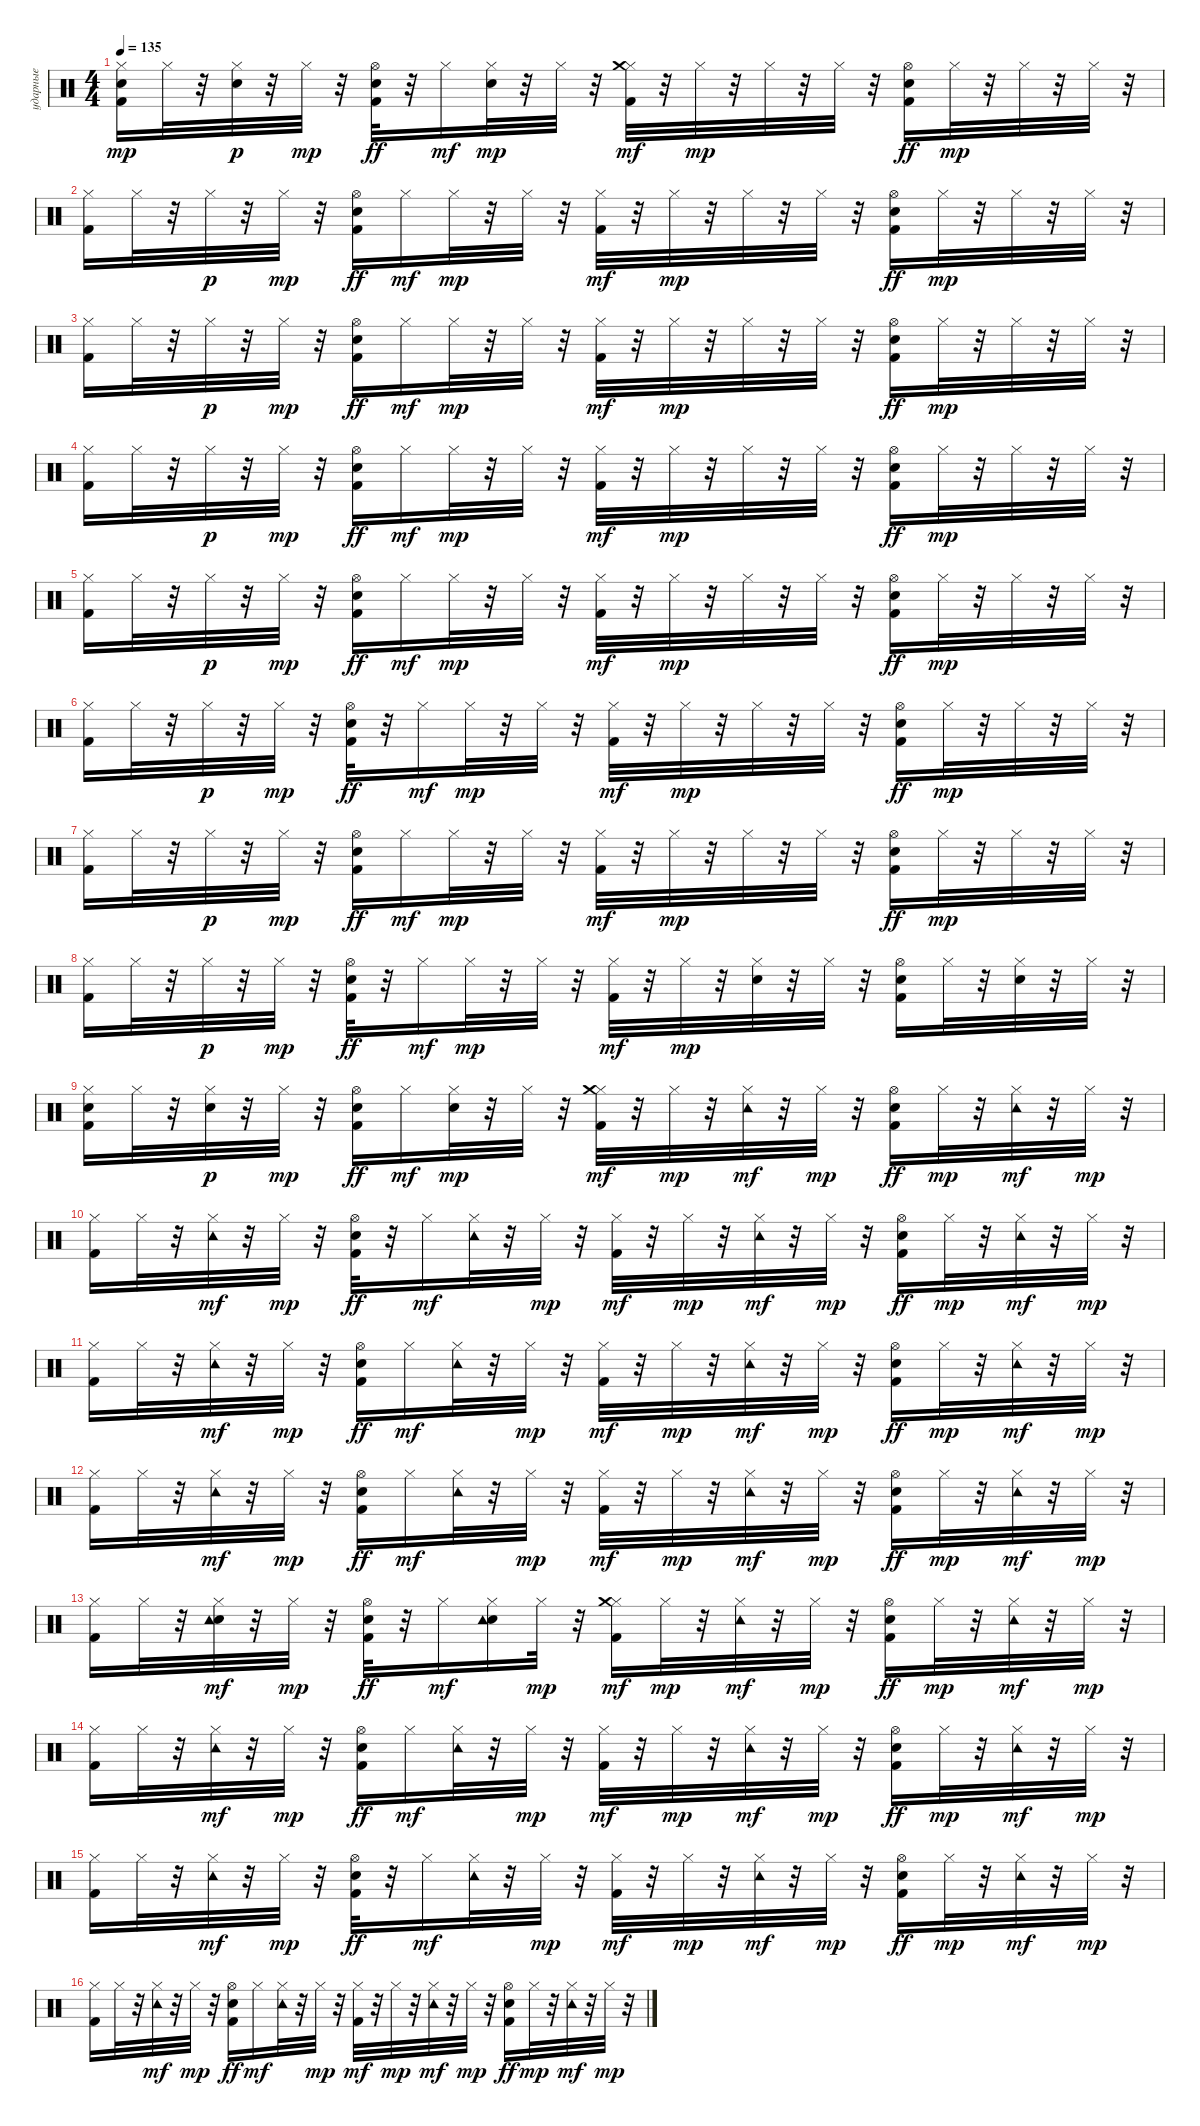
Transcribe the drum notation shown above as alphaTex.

\track ("ударные" "ударные") {instrument percussion}
\staff {score}
\articulation defaults
\ts (4 4)
\tempo 135
\clef neutral
\ks c
("Kick (hit) 2" "Snare (hit) 2" "Hi-Hat (closed)").16{dy mp} "Hi-Hat (closed)".32 r.32 ("Snare (hit) 2" "Hi-Hat (closed)").32{dy p} r.32 "Hi-Hat (closed)".32{dy mp} r.32 ("Kick (hit) 2" "Snare (hit) 2" "Hi-Hat (open)").32{dy ff} r.32 "Hi-Hat (closed)".16{dy mf} ("Snare (hit) 2" "Hi-Hat (closed)").32{dy mp} r.32 "Hi-Hat (closed)".32 r.32 ("Kick (hit) 2" "Hi-Hat (closed)" "Crash medium (hit)").32{dy mf} r.32 "Hi-Hat (closed)".32{dy mp} r.32 "Hi-Hat (closed)".32 r.32 "Hi-Hat (closed)".32 r.32 ("Kick (hit) 2" "Snare (hit) 2" "Hi-Hat (open)").16{dy ff} "Hi-Hat (closed)".32{dy mp} r.32 "Hi-Hat (closed)".32 r.32 "Hi-Hat (closed)".32 r.32 |
("Kick (hit) 2" "Hi-Hat (closed)").16 "Hi-Hat (closed)".32 r.32 "Hi-Hat (closed)".32{dy p} r.32 "Hi-Hat (closed)".32{dy mp} r.32 ("Kick (hit) 2" "Snare (hit) 2" "Hi-Hat (open)").16{dy ff} "Hi-Hat (closed)".16{dy mf} "Hi-Hat (closed)".32{dy mp} r.32 "Hi-Hat (closed)".32 r.32 ("Kick (hit) 2" "Hi-Hat (closed)").32{dy mf} r.32 "Hi-Hat (closed)".32{dy mp} r.32 "Hi-Hat (closed)".32 r.32 "Hi-Hat (closed)".32 r.32 ("Kick (hit) 2" "Snare (hit) 2" "Hi-Hat (open)").16{dy ff} "Hi-Hat (closed)".32{dy mp} r.32 "Hi-Hat (closed)".32 r.32 "Hi-Hat (closed)".32 r.32 |
("Kick (hit) 2" "Hi-Hat (closed)").16 "Hi-Hat (closed)".32 r.32 "Hi-Hat (closed)".32{dy p} r.32 "Hi-Hat (closed)".32{dy mp} r.32 ("Kick (hit) 2" "Snare (hit) 2" "Hi-Hat (open)").16{dy ff} "Hi-Hat (closed)".16{dy mf} "Hi-Hat (closed)".32{dy mp} r.32 "Hi-Hat (closed)".32 r.32 ("Kick (hit) 2" "Hi-Hat (closed)").32{dy mf} r.32 "Hi-Hat (closed)".32{dy mp} r.32 "Hi-Hat (closed)".32 r.32 "Hi-Hat (closed)".32 r.32 ("Kick (hit) 2" "Snare (hit) 2" "Hi-Hat (open)").16{dy ff} "Hi-Hat (closed)".32{dy mp} r.32 "Hi-Hat (closed)".32 r.32 "Hi-Hat (closed)".32 r.32 |
("Kick (hit) 2" "Hi-Hat (closed)").16 "Hi-Hat (closed)".32 r.32 "Hi-Hat (closed)".32{dy p} r.32 "Hi-Hat (closed)".32{dy mp} r.32 ("Kick (hit) 2" "Snare (hit) 2" "Hi-Hat (open)").16{dy ff} "Hi-Hat (closed)".16{dy mf} "Hi-Hat (closed)".32{dy mp} r.32 "Hi-Hat (closed)".32 r.32 ("Kick (hit) 2" "Hi-Hat (closed)").32{dy mf} r.32 "Hi-Hat (closed)".32{dy mp} r.32 "Hi-Hat (closed)".32 r.32 "Hi-Hat (closed)".32 r.32 ("Kick (hit) 2" "Snare (hit) 2" "Hi-Hat (open)").16{dy ff} "Hi-Hat (closed)".32{dy mp} r.32 "Hi-Hat (closed)".32 r.32 "Hi-Hat (closed)".32 r.32 |
("Kick (hit) 2" "Hi-Hat (closed)").16 "Hi-Hat (closed)".32 r.32 "Hi-Hat (closed)".32{dy p} r.32 "Hi-Hat (closed)".32{dy mp} r.32 ("Kick (hit) 2" "Snare (hit) 2" "Hi-Hat (open)").16{dy ff} "Hi-Hat (closed)".16{dy mf} "Hi-Hat (closed)".32{dy mp} r.32 "Hi-Hat (closed)".32 r.32 ("Kick (hit) 2" "Hi-Hat (closed)").32{dy mf} r.32 "Hi-Hat (closed)".32{dy mp} r.32 "Hi-Hat (closed)".32 r.32 "Hi-Hat (closed)".32 r.32 ("Kick (hit) 2" "Snare (hit) 2" "Hi-Hat (open)").16{dy ff} "Hi-Hat (closed)".32{dy mp} r.32 "Hi-Hat (closed)".32 r.32 "Hi-Hat (closed)".32 r.32 |
("Kick (hit) 2" "Hi-Hat (closed)").16 "Hi-Hat (closed)".32 r.32 "Hi-Hat (closed)".32{dy p} r.32 "Hi-Hat (closed)".32{dy mp} r.32 ("Kick (hit) 2" "Snare (hit) 2" "Hi-Hat (open)").32{dy ff} r.32 "Hi-Hat (closed)".16{dy mf} "Hi-Hat (closed)".32{dy mp} r.32 "Hi-Hat (closed)".32 r.32 ("Kick (hit) 2" "Hi-Hat (closed)").32{dy mf} r.32 "Hi-Hat (closed)".32{dy mp} r.32 "Hi-Hat (closed)".32 r.32 "Hi-Hat (closed)".32 r.32 ("Kick (hit) 2" "Snare (hit) 2" "Hi-Hat (open)").16{dy ff} "Hi-Hat (closed)".32{dy mp} r.32 "Hi-Hat (closed)".32 r.32 "Hi-Hat (closed)".32 r.32 |
("Kick (hit) 2" "Hi-Hat (closed)").16 "Hi-Hat (closed)".32 r.32 "Hi-Hat (closed)".32{dy p} r.32 "Hi-Hat (closed)".32{dy mp} r.32 ("Kick (hit) 2" "Snare (hit) 2" "Hi-Hat (open)").16{dy ff} "Hi-Hat (closed)".16{dy mf} "Hi-Hat (closed)".32{dy mp} r.32 "Hi-Hat (closed)".32 r.32 ("Kick (hit) 2" "Hi-Hat (closed)").32{dy mf} r.32 "Hi-Hat (closed)".32{dy mp} r.32 "Hi-Hat (closed)".32 r.32 "Hi-Hat (closed)".32 r.32 ("Kick (hit) 2" "Snare (hit) 2" "Hi-Hat (open)").16{dy ff} "Hi-Hat (closed)".32{dy mp} r.32 "Hi-Hat (closed)".32 r.32 "Hi-Hat (closed)".32 r.32 |
("Kick (hit) 2" "Hi-Hat (closed)").16 "Hi-Hat (closed)".32 r.32 "Hi-Hat (closed)".32{dy p} r.32 "Hi-Hat (closed)".32{dy mp} r.32 ("Kick (hit) 2" "Hi-Hat (open)" "Snare (hit) 2").32{dy ff} r.32 "Hi-Hat (closed)".16{dy mf} "Hi-Hat (closed)".32{dy mp} r.32 "Hi-Hat (closed)".32 r.32 ("Kick (hit) 2" "Hi-Hat (closed)").32{dy mf} r.32 "Hi-Hat (closed)".32{dy mp} r.32 ("Snare (hit) 2" "Hi-Hat (closed)").32 r.32 "Hi-Hat (closed)".32 r.32 ("Kick (hit) 2" "Snare (hit) 2" "Hi-Hat (open)").16 "Hi-Hat (closed)".32 r.32 ("Snare (hit) 2" "Hi-Hat (closed)").32 r.32 "Hi-Hat (closed)".32 r.32 |
("Kick (hit) 2" "Snare (hit) 2" "Hi-Hat (closed)").16 "Hi-Hat (closed)".32 r.32 ("Snare (hit) 2" "Hi-Hat (closed)").32{dy p} r.32 "Hi-Hat (closed)".32{dy mp} r.32 ("Kick (hit) 2" "Snare (hit) 2" "Hi-Hat (open)").16{dy ff} "Hi-Hat (closed)".16{dy mf} ("Snare (hit) 2" "Hi-Hat (closed)").32{dy mp} r.32 "Hi-Hat (closed)".32 r.32 ("Kick (hit) 2" "Hi-Hat (closed)" "Crash medium (hit)").32{dy mf} r.32 "Hi-Hat (closed)".32{dy mp} r.32 ("Hi-Hat (closed)" "Tambourine (hit)").32{dy mf} r.32 "Hi-Hat (closed)".32{dy mp} r.32 ("Kick (hit) 2" "Snare (hit) 2" "Hi-Hat (open)").16{dy ff} "Hi-Hat (closed)".32{dy mp} r.32 ("Hi-Hat (closed)" "Tambourine (hit)").32{dy mf} r.32 "Hi-Hat (closed)".32{dy mp} r.32 |
("Kick (hit) 2" "Hi-Hat (closed)").16 "Hi-Hat (closed)".32 r.32 ("Hi-Hat (closed)" "Tambourine (hit)").32{dy mf} r.32 "Hi-Hat (closed)".32{dy mp} r.32 ("Kick (hit) 2" "Snare (hit) 2" "Hi-Hat (open)").32{dy ff} r.32 "Hi-Hat (closed)".16{dy mf} ("Hi-Hat (closed)" "Tambourine (hit)").32 r.32 "Hi-Hat (closed)".32{dy mp} r.32 ("Kick (hit) 2" "Hi-Hat (closed)").32{dy mf} r.32 "Hi-Hat (closed)".32{dy mp} r.32 ("Hi-Hat (closed)" "Tambourine (hit)").32{dy mf} r.32 "Hi-Hat (closed)".32{dy mp} r.32 ("Kick (hit) 2" "Snare (hit) 2" "Hi-Hat (open)").16{dy ff} "Hi-Hat (closed)".32{dy mp} r.32 ("Hi-Hat (closed)" "Tambourine (hit)").32{dy mf} r.32 "Hi-Hat (closed)".32{dy mp} r.32 |
("Kick (hit) 2" "Hi-Hat (closed)").16 "Hi-Hat (closed)".32 r.32 ("Hi-Hat (closed)" "Tambourine (hit)").32{dy mf} r.32 "Hi-Hat (closed)".32{dy mp} r.32 ("Kick (hit) 2" "Snare (hit) 2" "Hi-Hat (open)").16{dy ff} "Hi-Hat (closed)".16{dy mf} ("Hi-Hat (closed)" "Tambourine (hit)").32 r.32 "Hi-Hat (closed)".32{dy mp} r.32 ("Kick (hit) 2" "Hi-Hat (closed)").32{dy mf} r.32 "Hi-Hat (closed)".32{dy mp} r.32 ("Hi-Hat (closed)" "Tambourine (hit)").32{dy mf} r.32 "Hi-Hat (closed)".32{dy mp} r.32 ("Kick (hit) 2" "Snare (hit) 2" "Hi-Hat (open)").16{dy ff} "Hi-Hat (closed)".32{dy mp} r.32 ("Hi-Hat (closed)" "Tambourine (hit)").32{dy mf} r.32 "Hi-Hat (closed)".32{dy mp} r.32 |
("Kick (hit) 2" "Hi-Hat (closed)").16 "Hi-Hat (closed)".32 r.32 ("Hi-Hat (closed)" "Tambourine (hit)").32{dy mf} r.32 "Hi-Hat (closed)".32{dy mp} r.32 ("Kick (hit) 2" "Snare (hit) 2" "Hi-Hat (open)").16{dy ff} "Hi-Hat (closed)".16{dy mf} ("Hi-Hat (closed)" "Tambourine (hit)").32 r.32 "Hi-Hat (closed)".32{dy mp} r.32 ("Kick (hit) 2" "Hi-Hat (closed)").32{dy mf} r.32 "Hi-Hat (closed)".32{dy mp} r.32 ("Hi-Hat (closed)" "Tambourine (hit)").32{dy mf} r.32 "Hi-Hat (closed)".32{dy mp} r.32 ("Kick (hit) 2" "Snare (hit) 2" "Hi-Hat (open)").16{dy ff} "Hi-Hat (closed)".32{dy mp} r.32 ("Hi-Hat (closed)" "Tambourine (hit)").32{dy mf} r.32 "Hi-Hat (closed)".32{dy mp} r.32 |
("Kick (hit) 2" "Hi-Hat (closed)").16 "Hi-Hat (closed)".32 r.32 ("Snare (hit) 2" "Hi-Hat (closed)" "Tambourine (hit)").32{dy mf} r.32 "Hi-Hat (closed)".32{dy mp} r.32 ("Kick (hit) 2" "Snare (hit) 2" "Hi-Hat (open)").32{dy ff} r.32 "Hi-Hat (closed)".16{dy mf} ("Snare (hit) 2" "Hi-Hat (closed)" "Tambourine (hit)").16 "Hi-Hat (closed)".32{dy mp} r.32 ("Kick (hit) 2" "Hi-Hat (closed)" "Crash medium (hit)").16{dy mf} "Hi-Hat (closed)".32{dy mp} r.32 ("Hi-Hat (closed)" "Tambourine (hit)").32{dy mf} r.32 "Hi-Hat (closed)".32{dy mp} r.32 ("Kick (hit) 2" "Snare (hit) 2" "Hi-Hat (open)").16{dy ff} "Hi-Hat (closed)".32{dy mp} r.32 ("Hi-Hat (closed)" "Tambourine (hit)").32{dy mf} r.32 "Hi-Hat (closed)".32{dy mp} r.32 |
("Kick (hit) 2" "Hi-Hat (closed)").16 "Hi-Hat (closed)".32 r.32 ("Hi-Hat (closed)" "Tambourine (hit)").32{dy mf} r.32 "Hi-Hat (closed)".32{dy mp} r.32 ("Kick (hit) 2" "Snare (hit) 2" "Hi-Hat (open)").16{dy ff} "Hi-Hat (closed)".16{dy mf} ("Hi-Hat (closed)" "Tambourine (hit)").32 r.32 "Hi-Hat (closed)".32{dy mp} r.32 ("Kick (hit) 2" "Hi-Hat (closed)").32{dy mf} r.32 "Hi-Hat (closed)".32{dy mp} r.32 ("Hi-Hat (closed)" "Tambourine (hit)").32{dy mf} r.32 "Hi-Hat (closed)".32{dy mp} r.32 ("Kick (hit) 2" "Snare (hit) 2" "Hi-Hat (open)").16{dy ff} "Hi-Hat (closed)".32{dy mp} r.32 ("Hi-Hat (closed)" "Tambourine (hit)").32{dy mf} r.32 "Hi-Hat (closed)".32{dy mp} r.32 |
("Kick (hit) 2" "Hi-Hat (closed)").16 "Hi-Hat (closed)".32 r.32 ("Hi-Hat (closed)" "Tambourine (hit)").32{dy mf} r.32 "Hi-Hat (closed)".32{dy mp} r.32 ("Kick (hit) 2" "Snare (hit) 2" "Hi-Hat (open)").32{dy ff} r.32 "Hi-Hat (closed)".16{dy mf} ("Hi-Hat (closed)" "Tambourine (hit)").32 r.32 "Hi-Hat (closed)".32{dy mp} r.32 ("Kick (hit) 2" "Hi-Hat (closed)").32{dy mf} r.32 "Hi-Hat (closed)".32{dy mp} r.32 ("Hi-Hat (closed)" "Tambourine (hit)").32{dy mf} r.32 "Hi-Hat (closed)".32{dy mp} r.32 ("Kick (hit) 2" "Snare (hit) 2" "Hi-Hat (open)").16{dy ff} "Hi-Hat (closed)".32{dy mp} r.32 ("Hi-Hat (closed)" "Tambourine (hit)").32{dy mf} r.32 "Hi-Hat (closed)".32{dy mp} r.32 |
("Kick (hit) 2" "Hi-Hat (closed)").16 "Hi-Hat (closed)".32 r.32 ("Hi-Hat (closed)" "Tambourine (hit)").32{dy mf} r.32 "Hi-Hat (closed)".32{dy mp} r.32 ("Kick (hit) 2" "Snare (hit) 2" "Hi-Hat (open)").16{dy ff} "Hi-Hat (closed)".16{dy mf} ("Hi-Hat (closed)" "Tambourine (hit)").32 r.32 "Hi-Hat (closed)".32{dy mp} r.32 ("Kick (hit) 2" "Hi-Hat (closed)").32{dy mf} r.32 "Hi-Hat (closed)".32{dy mp} r.32 ("Hi-Hat (closed)" "Tambourine (hit)").32{dy mf} r.32 "Hi-Hat (closed)".32{dy mp} r.32 ("Kick (hit) 2" "Snare (hit) 2" "Hi-Hat (open)").16{dy ff} "Hi-Hat (closed)".32{dy mp} r.32 ("Hi-Hat (closed)" "Tambourine (hit)").32{dy mf} r.32 "Hi-Hat (closed)".32{dy mp} r.32
